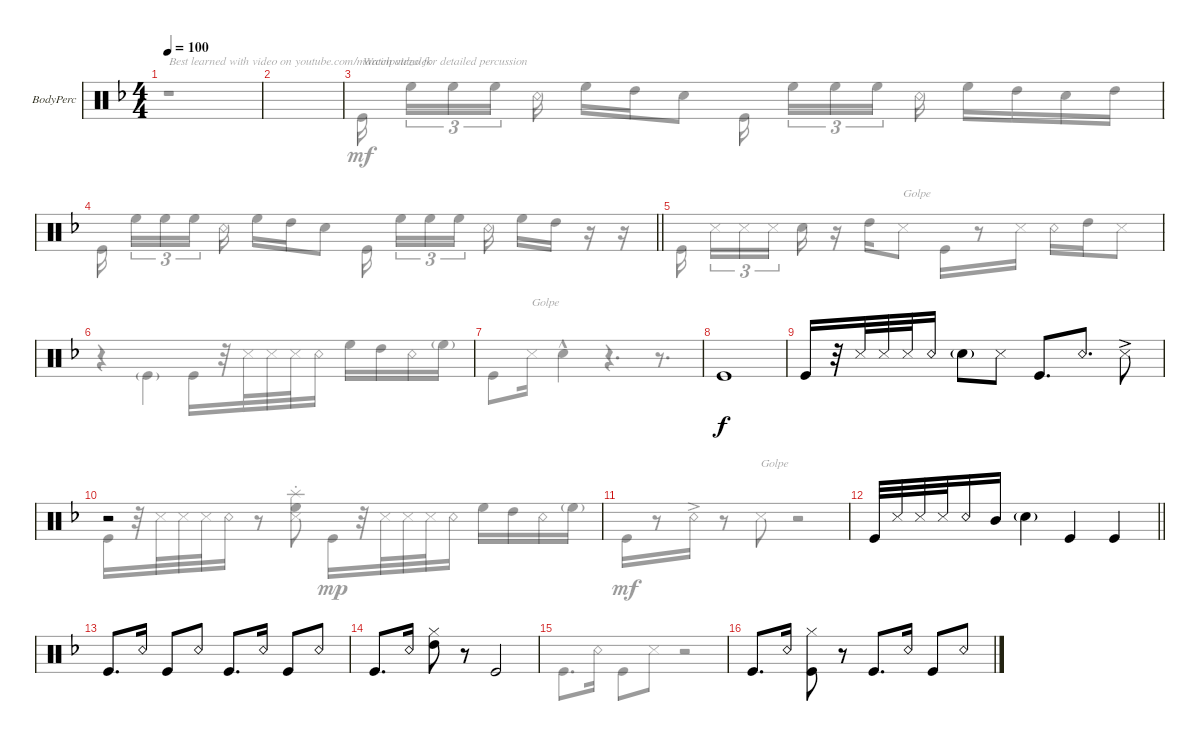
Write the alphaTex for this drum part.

\defaultSystemsLayout 4
\firstSystemTrackNameOrientation horizontal
\otherSystemsTrackNameOrientation horizontal
\track ("Percussion" "BodyPerc") {instrument percussion}
\staff {score}
\articulation defaults
\voice
\ts (4 4)
\tempo 100
\clef neutral
\ks dminor
|
|
|
\barLineRight lightlight
|
\scale
0.537432 |
\scale
0.462568 |
\scale
0.51406 |
\scale
0.592371 "Kick (hit)".1 |
\scale
0.574142 "Kick (hit)".16 r.32 "Snare (side stick) 3".32 "Snare (side stick) 3".32 "Snare (side stick) 3".32 "Snare (rim shot)".16 "Snare (hit) 2"{g}.8 "Snare (side stick) 3".8 "Kick (hit)".8{d} "Snare (rim shot)".8{d} "Snare (side stick) 3"{ac}.8 |
\scale
0.576524 r.2 |
\scale
0.423506 |
\barLineRight lightlight "Kick (hit)".32 "Snare (side stick) 3".32 "Snare (side stick) 3".32 "Snare (side stick) 3".32 "Snare (rim shot)".16 "Mid Tom (hit)".16 "Snare (hit) 2"{g}.4 "Kick (hit)".4 "Kick (hit)".4
|
"Kick (hit)".8{d} "Snare (rim shot)".16 "Kick (hit)".8 "Snare (rim shot)".8 "Kick (hit)".8{d} "Snare (rim shot)".16 "Kick (hit)".8 "Snare (rim shot)".8 |
\scale
0.518803 "Kick (hit)".8{d} "Snare (rim shot)".16 ("High Tom (hit)" "Hi-Hat (closed)").8 r.8 "Kick (hit)".2 |
\scale
0.480952 |
\scale
0.358472 "Kick (hit)".8{d} "Snare (rim shot)".16 ("Hi-Hat (closed)" "Kick (hit)").8 r.8 "Kick (hit)".8{d} "Snare (rim shot)".16 "Kick (hit)".8 "Snare (rim shot)".8
\voice
\clef neutral
\ottava regular
\simile none
\ks dminor
r.1{txt "Best learned with video on youtube.com/marcinpatrzalek" dy mf} |
|
"Kick (hit)".16{txt "Watch video for detailed percussion"} "High Floor Tom (hit)".16{tu (3 2)} "High Floor Tom (hit)".16{tu (3 2)} "High Floor Tom (hit)".16{tu (3 2)} "Snare (rim shot)".16 "High Floor Tom (hit)".16 "High Tom (hit)".16 "Snare (hit) 2".8 "Kick (hit)".16 "High Floor Tom (hit)".16{tu (3 2)} "High Floor Tom (hit)".16{tu (3 2)} "High Floor Tom (hit)".16{tu (3 2)} "Snare (rim shot)".16 "High Floor Tom (hit)".16 "High Tom (hit)".16 "Snare (hit) 2".16 "High Tom (hit)".16 |
\barLineRight lightlight "Kick (hit)".16 "High Floor Tom (hit)".16{tu (3 2)} "High Floor Tom (hit)".16{tu (3 2)} "High Floor Tom (hit)".16{tu (3 2)} "Snare (rim shot)".16 "High Floor Tom (hit)".16 "High Tom (hit)".16 "Snare (hit) 2".8 "Kick (hit)".16 "High Floor Tom (hit)".16{tu (3 2)} "High Floor Tom (hit)".16{tu (3 2)} "High Floor Tom (hit)".16{tu (3 2)} "Snare (rim shot)".16 "High Floor Tom (hit)".16 "High Tom (hit)".16
r.16 r.16 |
"Kick (hit)".16 "Snare (side stick) 3".16{tu (3 2)} "Snare (side stick) 3".16{tu (3 2)} "Snare (side stick) 3".16{tu (3 2)} "Snare (hit) 2".16 r.16 "High Tom (hit)".16 "Snare (side stick) 3".8{txt "Golpe"} "Kick (hit)".16 r.8 "Snare (side stick) 3".16 "Snare (rim shot)".16 "High Tom (hit)".16 "Snare (side stick) 3".8 |
r.4 "Kick (hit)"{g}.4 "Kick (hit)".16 r.32 "Snare (side stick) 3".32 "Snare (side stick) 3".32 "Snare (side stick) 3".32 "Snare (rim shot)".16 "High Floor Tom (hit)".16 "High Tom (hit)".16 "Snare (rim shot)".16 "High Floor Tom (hit)"{g}.16 |
"Kick (hit)".8 "Snare (side stick) 3".16{txt "Golpe"} "Snare (hit) 2"{hac}.4 r.4{d} r.8{d} |
|
|
"Kick (hit)".16 r.32 "Snare (side stick) 3".32 "Snare (side stick) 3".32 "Snare (side stick) 3".32 "Snare (rim shot)".16 r.8 ("Snare (side stick) 3" "High Floor Tom (hit)" "Splash (hit)"{st}).8 "Kick (hit)".16{dy mp} r.32 "Snare (side stick) 3".32 "Snare (side stick) 3".32 "Snare (side stick) 3".32 "Snare (rim shot)".16 "High Floor Tom (hit)".16 "High Tom (hit)".16 "Snare (rim shot)".16 "High Floor Tom (hit)"{g}.16 |
"Kick (hit)".16{dy mf} r.8 "Snare (rim shot)"{ac}.16 r.8 "Snare (side stick) 3".8{txt "Golpe"} r.2 |
\barLineRight lightlight
|
|
|
"Kick (hit)".8{d} "Snare (rim shot)".16 "Kick (hit)".8 "Snare (side stick) 3".8 r.2 |
